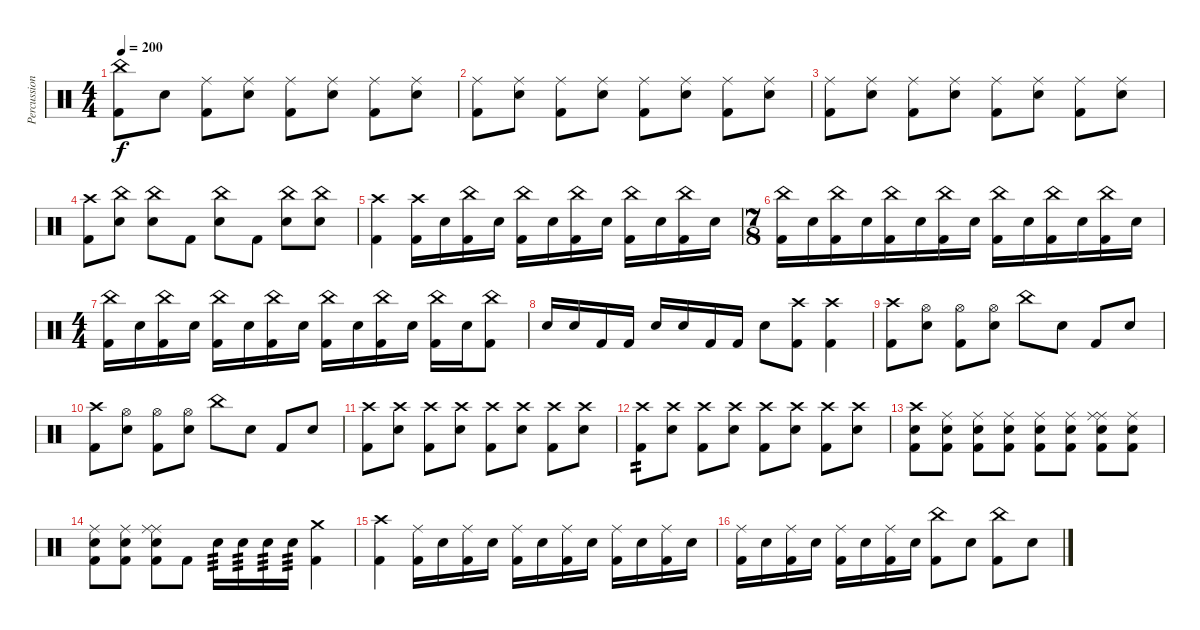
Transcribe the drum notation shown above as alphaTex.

\track ("Percussion" "Percussion") {instrument percussion}
\staff {score}
\articulation defaults
\ts (4 4)
\tempo 200
\clef neutral
\ks c
("China (hit)" "Kick (hit) 2").8{dy f} "Electric Snare (hit)".8 ("Ride (middle)" "Kick (hit) 2").8 ("Ride (middle)" "Electric Snare (hit)").8 ("Ride (middle)" "Kick (hit) 2").8 ("Ride (middle)" "Electric Snare (hit)").8 ("Ride (middle)" "Kick (hit) 2").8 ("Ride (middle)" "Electric Snare (hit)").8 |
("Ride (middle)" "Kick (hit) 2").8 ("Electric Snare (hit)" "Ride (middle)").8 ("Ride (middle)" "Kick (hit) 2").8 ("Ride (middle)" "Electric Snare (hit)").8 ("Ride (middle)" "Kick (hit) 2").8 ("Ride (middle)" "Electric Snare (hit)").8 ("Ride (middle)" "Kick (hit) 2").8 ("Ride (middle)" "Electric Snare (hit)").8 |
("Ride (middle)" "Kick (hit) 2").8 ("Electric Snare (hit)" "Ride (middle)").8 ("Ride (middle)" "Kick (hit) 2").8 ("Ride (middle)" "Electric Snare (hit)").8 ("Ride (middle)" "Kick (hit) 2").8 ("Ride (middle)" "Electric Snare (hit)").8 ("Ride (middle)" "Kick (hit) 2").8 ("Ride (middle)" "Electric Snare (hit)").8 |
("Crash high (hit)" "Kick (hit) 2").8 ("Electric Snare (hit)" "China (hit)").8 ("China (hit)" "Electric Snare (hit)").8 "Kick (hit) 2".8 ("China (hit)" "Electric Snare (hit)").8 "Kick (hit) 2".8 ("Electric Snare (hit)" "China (hit)").8 ("Electric Snare (hit)" "China (hit)").8 |
("Crash high (hit)" "Kick (hit) 2").4 ("Crash high (hit)" "Kick (hit) 2").16 "Electric Snare (hit)".16 ("China (hit)" "Kick (hit) 2").16 "Electric Snare (hit)".16 ("China (hit)" "Kick (hit) 2").16 "Electric Snare (hit)".16 ("China (hit)" "Kick (hit) 2").16 "Electric Snare (hit)".16 ("China (hit)" "Kick (hit) 2").16 "Electric Snare (hit)".16 ("China (hit)" "Kick (hit) 2").16 "Electric Snare (hit)".16 |
\ts (7 8)
("China (hit)" "Kick (hit) 2").16 "Electric Snare (hit)".16 ("China (hit)" "Kick (hit) 2").16 "Electric Snare (hit)".16 ("China (hit)" "Kick (hit) 2").16 "Electric Snare (hit)".16 ("China (hit)" "Kick (hit) 2").16 "Electric Snare (hit)".16 ("China (hit)" "Kick (hit) 2").16 "Electric Snare (hit)".16 ("China (hit)" "Kick (hit) 2").16 "Electric Snare (hit)".16 ("China (hit)" "Kick (hit) 2").16 "Electric Snare (hit)".16 |
\ts (4 4)
("China (hit)" "Kick (hit) 2").16 "Electric Snare (hit)".16 ("China (hit)" "Kick (hit) 2").16 "Electric Snare (hit)".16 ("China (hit)" "Kick (hit) 2").16 "Electric Snare (hit)".16 ("China (hit)" "Kick (hit) 2").16 "Electric Snare (hit)".16 ("China (hit)" "Kick (hit) 2").16 "Electric Snare (hit)".16 ("China (hit)" "Kick (hit) 2").16 "Electric Snare (hit)".16 ("China (hit)" "Kick (hit) 2").16 "Electric Snare (hit)".16 ("China (hit)" "Kick (hit) 2").8 |
"Electric Snare (hit)".16 "Electric Snare (hit)".16 "Kick (hit) 2".16 "Kick (hit) 2".16 "Electric Snare (hit)".16 "Electric Snare (hit)".16 "Kick (hit) 2".16 "Kick (hit) 2".16 "Electric Snare (hit)".8 ("Crash high (hit)" "Kick (hit) 2").8 ("Crash high (hit)" "Kick (hit) 2").4 |
("Crash high (hit)" "Kick (hit) 2").8 ("Electric Snare (hit)" "Hi-Hat (open)").8 ("Kick (hit) 2" "Hi-Hat (open)").8 ("Electric Snare (hit)" "Hi-Hat (open)").8 "China (hit)".8 "Electric Snare (hit)".8 "Kick (hit) 2".8 "Electric Snare (hit)".8 |
("Crash high (hit)" "Kick (hit) 2").8 ("Electric Snare (hit)" "Hi-Hat (open)").8 ("Kick (hit) 2" "Hi-Hat (open)").8 ("Electric Snare (hit)" "Hi-Hat (open)").8 "China (hit)".8 "Electric Snare (hit)".8 "Kick (hit) 2".8 "Electric Snare (hit)".8 |
("Crash high (hit)" "Kick (hit) 2").8 ("Crash high (hit)" "Electric Snare (hit)").8 ("Crash high (hit)" "Kick (hit) 2").8 ("Crash high (hit)" "Electric Snare (hit)").8 ("Crash high (hit)" "Kick (hit) 2").8 ("Crash high (hit)" "Electric Snare (hit)").8 ("Crash high (hit)" "Kick (hit) 2").8 ("Crash high (hit)" "Electric Snare (hit)").8 |
("Crash high (hit)" "Kick (hit) 2").8{tp 2} ("Crash high (hit)" "Electric Snare (hit)").8 ("Crash high (hit)" "Kick (hit) 2").8 ("Crash high (hit)" "Electric Snare (hit)").8 ("Crash high (hit)" "Kick (hit) 2").8 ("Crash high (hit)" "Electric Snare (hit)").8 ("Crash high (hit)" "Kick (hit) 2").8 ("Crash high (hit)" "Electric Snare (hit)").8 |
("Crash high (hit)" "Kick (hit) 2" "Electric Snare (hit)").8 ("Ride (middle)" "Kick (hit) 2" "Electric Snare (hit)").8 ("Ride (middle)" "Kick (hit) 2" "Electric Snare (hit)").8 ("Ride (middle)" "Kick (hit) 2" "Electric Snare (hit)").8 ("Ride (middle)" "Kick (hit) 2" "Electric Snare (hit)").8 ("Ride (middle)" "Kick (hit) 2" "Electric Snare (hit)").8 ("Ride (middle)" "Ride (middle)" "Kick (hit) 2" "Electric Snare (hit)").8 ("Ride (middle)" "Kick (hit) 2" "Electric Snare (hit)").8 |
("Ride (middle)" "Kick (hit) 2" "Electric Snare (hit)").8 ("Ride (middle)" "Kick (hit) 2" "Electric Snare (hit)").8 ("Ride (middle)" "Ride (middle)" "Kick (hit) 2" "Electric Snare (hit)").8 "Kick (hit) 2".8 "Electric Snare (hit)".16{tp 3} "Electric Snare (hit)".16{tp 3} "Electric Snare (hit)".16{tp 3} "Electric Snare (hit)".16{tp 3} ("Crash medium (hit)" "Kick (hit) 2").4 |
("Crash high (hit)" "Kick (hit) 2").4 ("Ride (middle)" "Kick (hit) 2").16 "Electric Snare (hit)".16 ("Ride (middle)" "Kick (hit) 2").16 "Electric Snare (hit)".16 ("Ride (middle)" "Kick (hit) 2").16 "Electric Snare (hit)".16 ("Ride (middle)" "Kick (hit) 2").16 "Electric Snare (hit)".16 ("Ride (middle)" "Kick (hit) 2").16 "Electric Snare (hit)".16 ("Ride (middle)" "Kick (hit) 2").16 "Electric Snare (hit)".16 |
("Ride (middle)" "Kick (hit) 2").16 "Electric Snare (hit)".16 ("Ride (middle)" "Kick (hit) 2").16 "Electric Snare (hit)".16 ("Ride (middle)" "Kick (hit) 2").16 "Electric Snare (hit)".16 ("Ride (middle)" "Kick (hit) 2").16 "Electric Snare (hit)".16 ("China (hit)" "Kick (hit) 2").8 "Electric Snare (hit)".8 ("China (hit)" "Kick (hit) 2").8 "Electric Snare (hit)".8
